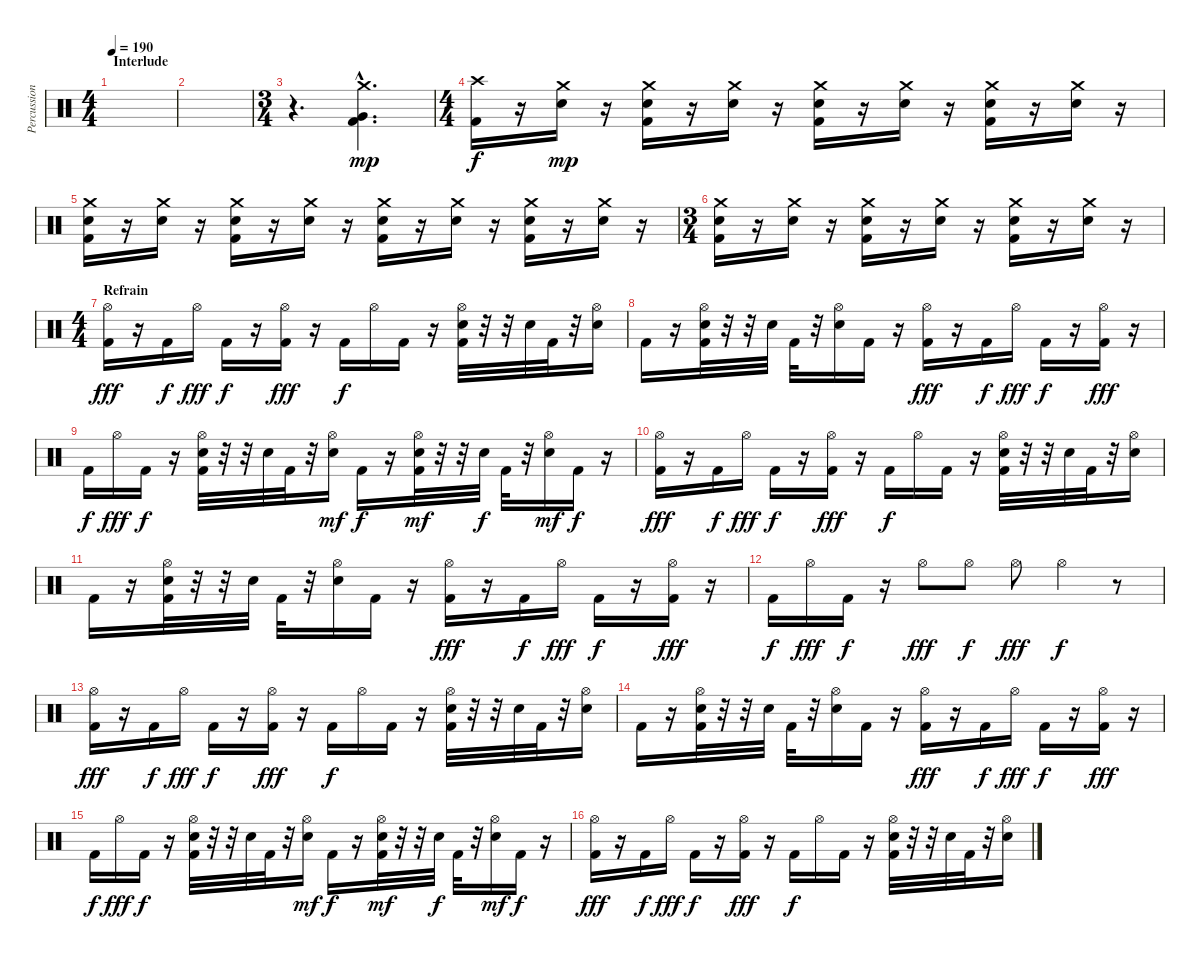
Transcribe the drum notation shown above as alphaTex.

\track ("Percussion" "Percussion") {instrument percussion}
\staff {score}
\articulation defaults
\ts (4 4)
\section ("" "Interlude")
\tempo 190
\clef neutral
\ks c
|
|
\ts (3 4)
r.4{d} ("Crash medium (hit)"{hac} "Very Low Tom (hit)"{hac} "Kick (hit) 2"{hac}).4{d dy mp} |
\ts (4 4)
("Crash high (hit)" "Kick (hit) 2").16{dy f} r.16 ("Crash medium (hit)" "Electric Snare (hit)").16{dy mp} r.16 ("Crash medium (hit)" "Electric Snare (hit)" "Kick (hit) 2").16 r.16 ("Crash medium (hit)" "Electric Snare (hit)").16 r.16 ("Crash medium (hit)" "Electric Snare (hit)" "Kick (hit) 2").16 r.16 ("Crash medium (hit)" "Electric Snare (hit)").16 r.16 ("Crash medium (hit)" "Electric Snare (hit)" "Kick (hit) 2").16 r.16 ("Crash medium (hit)" "Electric Snare (hit)").16 r.16 |
("Crash medium (hit)" "Electric Snare (hit)" "Kick (hit) 2").16 r.16 ("Crash medium (hit)" "Electric Snare (hit)").16 r.16 ("Crash medium (hit)" "Electric Snare (hit)" "Kick (hit) 2").16 r.16 ("Crash medium (hit)" "Electric Snare (hit)").16 r.16 ("Crash medium (hit)" "Electric Snare (hit)" "Kick (hit) 2").16 r.16 ("Crash medium (hit)" "Electric Snare (hit)").16 r.16 ("Crash medium (hit)" "Electric Snare (hit)" "Kick (hit) 2").16 r.16 ("Crash medium (hit)" "Electric Snare (hit)").16 r.16 |
\ts (3 4)
("Crash medium (hit)" "Electric Snare (hit)" "Kick (hit) 2").16 r.16 ("Crash medium (hit)" "Electric Snare (hit)").16 r.16 ("Crash medium (hit)" "Electric Snare (hit)" "Kick (hit) 2").16 r.16 ("Crash medium (hit)" "Electric Snare (hit)").16 r.16 ("Crash medium (hit)" "Electric Snare (hit)" "Kick (hit) 2").16 r.16 ("Crash medium (hit)" "Electric Snare (hit)").16 r.16 |
\ts (4 4)
\section ("" "Refrain")
("Hi-Hat (open)" "Kick (hit) 2").16{dy fff} r.16 "Kick (hit) 2".16{dy f} "Hi-Hat (open)".16{dy fff} "Kick (hit) 2".16{dy f} r.16 ("Hi-Hat (open)" "Kick (hit) 2").16{dy fff} r.16 "Kick (hit) 2".16{dy f} "Hi-Hat (open)".16 "Kick (hit) 2".16 r.16 ("Hi-Hat (open)" "Electric Snare (hit)" "Kick (hit) 2").32 r.32 r.32 "Electric Snare (hit)".32 "Kick (hit) 2".32 r.32 ("Hi-Hat (open)" "Electric Snare (hit)").16 |
"Kick (hit) 2".16 r.16 ("Hi-Hat (open)" "Electric Snare (hit)" "Kick (hit) 2").32 r.32 r.32 "Electric Snare (hit)".32 "Kick (hit) 2".32 r.32 ("Hi-Hat (open)" "Electric Snare (hit)").16 "Kick (hit) 2".16 r.16 ("Hi-Hat (open)" "Kick (hit) 2").16{dy fff} r.16 "Kick (hit) 2".16{dy f} "Hi-Hat (open)".16{dy fff} "Kick (hit) 2".16{dy f} r.16 ("Hi-Hat (open)" "Kick (hit) 2").16{dy fff} r.16 |
"Kick (hit) 2".16{dy f} "Hi-Hat (open)".16{dy fff} "Kick (hit) 2".16{dy f} r.16 ("Hi-Hat (open)" "Electric Snare (hit)" "Kick (hit) 2").32 r.32 r.32 "Electric Snare (hit)".32 "Kick (hit) 2".32 r.32 ("Hi-Hat (open)" "Electric Snare (hit)").16{dy mf} "Kick (hit) 2".16{dy f} r.16 ("Hi-Hat (open)" "Electric Snare (hit)" "Kick (hit) 2").32{dy mf} r.32 r.32 "Electric Snare (hit)".32{dy f} "Kick (hit) 2".32 r.32 ("Hi-Hat (open)" "Electric Snare (hit)").16{dy mf} "Kick (hit) 2".16{dy f} r.16 |
("Hi-Hat (open)" "Kick (hit) 2").16{dy fff} r.16 "Kick (hit) 2".16{dy f} "Hi-Hat (open)".16{dy fff} "Kick (hit) 2".16{dy f} r.16 ("Hi-Hat (open)" "Kick (hit) 2").16{dy fff} r.16 "Kick (hit) 2".16{dy f} "Hi-Hat (open)".16 "Kick (hit) 2".16 r.16 ("Hi-Hat (open)" "Electric Snare (hit)" "Kick (hit) 2").32 r.32 r.32 "Electric Snare (hit)".32 "Kick (hit) 2".32 r.32 ("Hi-Hat (open)" "Electric Snare (hit)").16 |
"Kick (hit) 2".16 r.16 ("Hi-Hat (open)" "Electric Snare (hit)" "Kick (hit) 2").32 r.32 r.32 "Electric Snare (hit)".32 "Kick (hit) 2".32 r.32 ("Hi-Hat (open)" "Electric Snare (hit)").16 "Kick (hit) 2".16 r.16 ("Hi-Hat (open)" "Kick (hit) 2").16{dy fff} r.16 "Kick (hit) 2".16{dy f} "Hi-Hat (open)".16{dy fff} "Kick (hit) 2".16{dy f} r.16 ("Hi-Hat (open)" "Kick (hit) 2").16{dy fff} r.16 |
"Kick (hit) 2".16{dy f} "Hi-Hat (open)".16{dy fff} "Kick (hit) 2".16{dy f} r.16 "Hi-Hat (open)".8{dy fff} "Hi-Hat (open)".8{dy f} "Hi-Hat (open)".8{dy fff} "Hi-Hat (open)".4{dy f} r.8 |
("Hi-Hat (open)" "Kick (hit) 2").16{dy fff} r.16 "Kick (hit) 2".16{dy f} "Hi-Hat (open)".16{dy fff} "Kick (hit) 2".16{dy f} r.16 ("Hi-Hat (open)" "Kick (hit) 2").16{dy fff} r.16 "Kick (hit) 2".16{dy f} "Hi-Hat (open)".16 "Kick (hit) 2".16 r.16 ("Hi-Hat (open)" "Electric Snare (hit)" "Kick (hit) 2").32 r.32 r.32 "Electric Snare (hit)".32 "Kick (hit) 2".32 r.32 ("Hi-Hat (open)" "Electric Snare (hit)").16 |
"Kick (hit) 2".16 r.16 ("Hi-Hat (open)" "Electric Snare (hit)" "Kick (hit) 2").32 r.32 r.32 "Electric Snare (hit)".32 "Kick (hit) 2".32 r.32 ("Hi-Hat (open)" "Electric Snare (hit)").16 "Kick (hit) 2".16 r.16 ("Hi-Hat (open)" "Kick (hit) 2").16{dy fff} r.16 "Kick (hit) 2".16{dy f} "Hi-Hat (open)".16{dy fff} "Kick (hit) 2".16{dy f} r.16 ("Hi-Hat (open)" "Kick (hit) 2").16{dy fff} r.16 |
"Kick (hit) 2".16{dy f} "Hi-Hat (open)".16{dy fff} "Kick (hit) 2".16{dy f} r.16 ("Hi-Hat (open)" "Electric Snare (hit)" "Kick (hit) 2").32 r.32 r.32 "Electric Snare (hit)".32 "Kick (hit) 2".32 r.32 ("Hi-Hat (open)" "Electric Snare (hit)").16{dy mf} "Kick (hit) 2".16{dy f} r.16 ("Hi-Hat (open)" "Electric Snare (hit)" "Kick (hit) 2").32{dy mf} r.32 r.32 "Electric Snare (hit)".32{dy f} "Kick (hit) 2".32 r.32 ("Hi-Hat (open)" "Electric Snare (hit)").16{dy mf} "Kick (hit) 2".16{dy f} r.16 |
("Hi-Hat (open)" "Kick (hit) 2").16{dy fff} r.16 "Kick (hit) 2".16{dy f} "Hi-Hat (open)".16{dy fff} "Kick (hit) 2".16{dy f} r.16 ("Hi-Hat (open)" "Kick (hit) 2").16{dy fff} r.16 "Kick (hit) 2".16{dy f} "Hi-Hat (open)".16 "Kick (hit) 2".16 r.16 ("Hi-Hat (open)" "Electric Snare (hit)" "Kick (hit) 2").32 r.32 r.32 "Electric Snare (hit)".32 "Kick (hit) 2".32 r.32 ("Hi-Hat (open)" "Electric Snare (hit)").16
